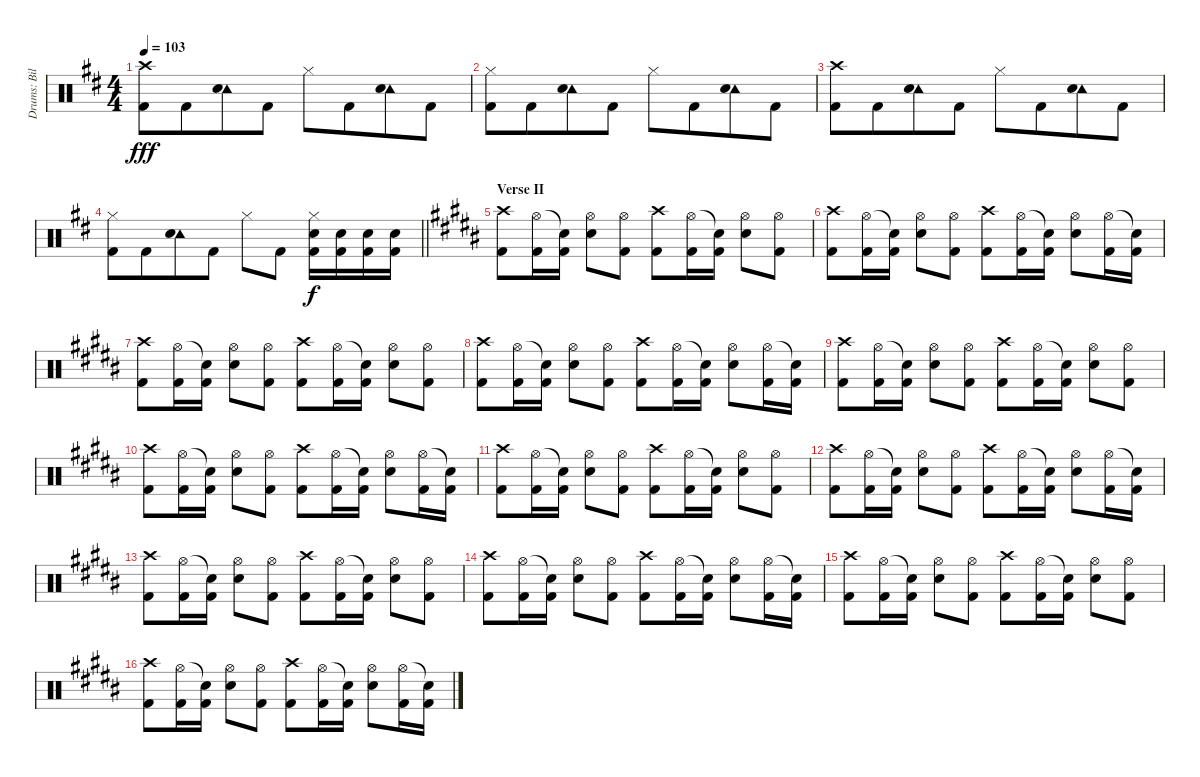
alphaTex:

\track ("Drums: Bill" "Drums: Bil") {instrument percussion}
\staff {score}
\articulation defaults
\ts (4 4)
\tempo 103
\clef neutral
\ks d
("Crash high (hit)" "Kick (hit) 2").8{dy fff} "Kick (hit) 2".8{beam merge} ("Tambourine (hit)" "Electric Snare (hit)").8 "Kick (hit) 2".8 "Hi-Hat (closed)".8 "Kick (hit) 2".8{beam merge} ("Tambourine (hit)" "Electric Snare (hit)").8 "Kick (hit) 2".8 |
("Hi-Hat (closed)" "Kick (hit) 2").8 "Kick (hit) 2".8{beam merge} ("Tambourine (hit)" "Electric Snare (hit)").8 "Kick (hit) 2".8 "Hi-Hat (closed)".8 "Kick (hit) 2".8{beam merge} ("Tambourine (hit)" "Electric Snare (hit)").8 "Kick (hit) 2".8 |
("Crash high (hit)" "Kick (hit) 2").8 "Kick (hit) 2".8{beam merge} ("Tambourine (hit)" "Electric Snare (hit)").8 "Kick (hit) 2".8 "Hi-Hat (closed)".8 "Kick (hit) 2".8{beam merge} ("Tambourine (hit)" "Electric Snare (hit)").8 "Kick (hit) 2".8 |
\barLineRight lightlight
("Hi-Hat (closed)" "Kick (hit) 2").8 "Kick (hit) 2".8{beam merge} ("Tambourine (hit)" "Electric Snare (hit)").8 "Kick (hit) 2".8 "Hi-Hat (closed)".8 "Kick (hit) 2".8 ("Hi-Hat (closed)" "Electric Snare (hit)" "Kick (hit) 2").16{dy f} ("Electric Snare (hit)" "Kick (hit) 2").16 ("Electric Snare (hit)" "Kick (hit) 2").16 ("Electric Snare (hit)" "Kick (hit) 2").16 |
\section ("" "Verse II")
\ks b
("Crash high (hit)" "Kick (hit) 2").8 ("Hi-Hat (open)" "Kick (hit) 2").16 ("Snare (hit)"{t} "Kick (hit) 2").16 ("Hi-Hat (open)" "Electric Snare (hit)").8 ("Hi-Hat (open)" "Kick (hit) 2").8 ("Crash high (hit)" "Kick (hit) 2").8 ("Hi-Hat (open)" "Kick (hit) 2").16 ("Snare (hit)"{t} "Kick (hit) 2").16 ("Hi-Hat (open)" "Electric Snare (hit)").8 ("Hi-Hat (open)" "Kick (hit) 2").8 |
("Crash high (hit)" "Kick (hit) 2").8 ("Hi-Hat (open)" "Kick (hit) 2").16 ("Snare (hit)"{t} "Kick (hit) 2").16 ("Hi-Hat (open)" "Electric Snare (hit)").8 ("Hi-Hat (open)" "Kick (hit) 2").8 ("Crash high (hit)" "Kick (hit) 2").8 ("Hi-Hat (open)" "Kick (hit) 2").16 ("Snare (hit)"{t} "Kick (hit) 2").16 ("Hi-Hat (open)" "Electric Snare (hit)").8 ("Hi-Hat (open)" "Kick (hit) 2").16 ("Snare (hit)"{t} "Kick (hit) 2").16 |
("Crash high (hit)" "Kick (hit) 2").8 ("Hi-Hat (open)" "Kick (hit) 2").16 ("Snare (hit)"{t} "Kick (hit) 2").16 ("Hi-Hat (open)" "Electric Snare (hit)").8 ("Hi-Hat (open)" "Kick (hit) 2").8 ("Crash high (hit)" "Kick (hit) 2").8 ("Hi-Hat (open)" "Kick (hit) 2").16 ("Snare (hit)"{t} "Kick (hit) 2").16 ("Hi-Hat (open)" "Electric Snare (hit)").8 ("Hi-Hat (open)" "Kick (hit) 2").8 |
("Crash high (hit)" "Kick (hit) 2").8 ("Hi-Hat (open)" "Kick (hit) 2").16 ("Snare (hit)"{t} "Kick (hit) 2").16 ("Hi-Hat (open)" "Electric Snare (hit)").8 ("Hi-Hat (open)" "Kick (hit) 2").8 ("Crash high (hit)" "Kick (hit) 2").8 ("Hi-Hat (open)" "Kick (hit) 2").16 ("Snare (hit)"{t} "Kick (hit) 2").16 ("Hi-Hat (open)" "Electric Snare (hit)").8 ("Hi-Hat (open)" "Kick (hit) 2").16 ("Snare (hit)"{t} "Kick (hit) 2").16 |
("Crash high (hit)" "Kick (hit) 2").8 ("Hi-Hat (open)" "Kick (hit) 2").16 ("Snare (hit)"{t} "Kick (hit) 2").16 ("Hi-Hat (open)" "Electric Snare (hit)").8 ("Hi-Hat (open)" "Kick (hit) 2").8 ("Crash high (hit)" "Kick (hit) 2").8 ("Hi-Hat (open)" "Kick (hit) 2").16 ("Snare (hit)"{t} "Kick (hit) 2").16 ("Hi-Hat (open)" "Electric Snare (hit)").8 ("Hi-Hat (open)" "Kick (hit) 2").8 |
("Crash high (hit)" "Kick (hit) 2").8 ("Hi-Hat (open)" "Kick (hit) 2").16 ("Snare (hit)"{t} "Kick (hit) 2").16 ("Hi-Hat (open)" "Electric Snare (hit)").8 ("Hi-Hat (open)" "Kick (hit) 2").8 ("Crash high (hit)" "Kick (hit) 2").8 ("Hi-Hat (open)" "Kick (hit) 2").16 ("Snare (hit)"{t} "Kick (hit) 2").16 ("Hi-Hat (open)" "Electric Snare (hit)").8 ("Hi-Hat (open)" "Kick (hit) 2").16 ("Snare (hit)"{t} "Kick (hit) 2").16 |
("Crash high (hit)" "Kick (hit) 2").8 ("Hi-Hat (open)" "Kick (hit) 2").16 ("Snare (hit)"{t} "Kick (hit) 2").16 ("Hi-Hat (open)" "Electric Snare (hit)").8 ("Hi-Hat (open)" "Kick (hit) 2").8 ("Crash high (hit)" "Kick (hit) 2").8 ("Hi-Hat (open)" "Kick (hit) 2").16 ("Snare (hit)"{t} "Kick (hit) 2").16 ("Hi-Hat (open)" "Electric Snare (hit)").8 ("Hi-Hat (open)" "Kick (hit) 2").8 |
("Crash high (hit)" "Kick (hit) 2").8 ("Hi-Hat (open)" "Kick (hit) 2").16 ("Snare (hit)"{t} "Kick (hit) 2").16 ("Hi-Hat (open)" "Electric Snare (hit)").8 ("Hi-Hat (open)" "Kick (hit) 2").8 ("Crash high (hit)" "Kick (hit) 2").8 ("Hi-Hat (open)" "Kick (hit) 2").16 ("Snare (hit)"{t} "Kick (hit) 2").16 ("Hi-Hat (open)" "Electric Snare (hit)").8 ("Hi-Hat (open)" "Kick (hit) 2").16 ("Snare (hit)"{t} "Kick (hit) 2").16 |
("Crash high (hit)" "Kick (hit) 2").8 ("Hi-Hat (open)" "Kick (hit) 2").16 ("Snare (hit)"{t} "Kick (hit) 2").16 ("Hi-Hat (open)" "Electric Snare (hit)").8 ("Hi-Hat (open)" "Kick (hit) 2").8 ("Crash high (hit)" "Kick (hit) 2").8 ("Hi-Hat (open)" "Kick (hit) 2").16 ("Snare (hit)"{t} "Kick (hit) 2").16 ("Hi-Hat (open)" "Electric Snare (hit)").8 ("Hi-Hat (open)" "Kick (hit) 2").8 |
("Crash high (hit)" "Kick (hit) 2").8 ("Hi-Hat (open)" "Kick (hit) 2").16 ("Snare (hit)"{t} "Kick (hit) 2").16 ("Hi-Hat (open)" "Electric Snare (hit)").8 ("Hi-Hat (open)" "Kick (hit) 2").8 ("Crash high (hit)" "Kick (hit) 2").8 ("Hi-Hat (open)" "Kick (hit) 2").16 ("Snare (hit)"{t} "Kick (hit) 2").16 ("Hi-Hat (open)" "Electric Snare (hit)").8 ("Hi-Hat (open)" "Kick (hit) 2").16 ("Snare (hit)"{t} "Kick (hit) 2").16 |
("Crash high (hit)" "Kick (hit) 2").8 ("Hi-Hat (open)" "Kick (hit) 2").16 ("Snare (hit)"{t} "Kick (hit) 2").16 ("Hi-Hat (open)" "Electric Snare (hit)").8 ("Hi-Hat (open)" "Kick (hit) 2").8 ("Crash high (hit)" "Kick (hit) 2").8 ("Hi-Hat (open)" "Kick (hit) 2").16 ("Snare (hit)"{t} "Kick (hit) 2").16 ("Hi-Hat (open)" "Electric Snare (hit)").8 ("Hi-Hat (open)" "Kick (hit) 2").8 |
("Crash high (hit)" "Kick (hit) 2").8 ("Hi-Hat (open)" "Kick (hit) 2").16 ("Snare (hit)"{t} "Kick (hit) 2").16 ("Hi-Hat (open)" "Electric Snare (hit)").8 ("Hi-Hat (open)" "Kick (hit) 2").8 ("Crash high (hit)" "Kick (hit) 2").8 ("Hi-Hat (open)" "Kick (hit) 2").16 ("Snare (hit)"{t} "Kick (hit) 2").16 ("Hi-Hat (open)" "Electric Snare (hit)").8 ("Hi-Hat (open)" "Kick (hit) 2").16 ("Snare (hit)"{t} "Kick (hit) 2").16
